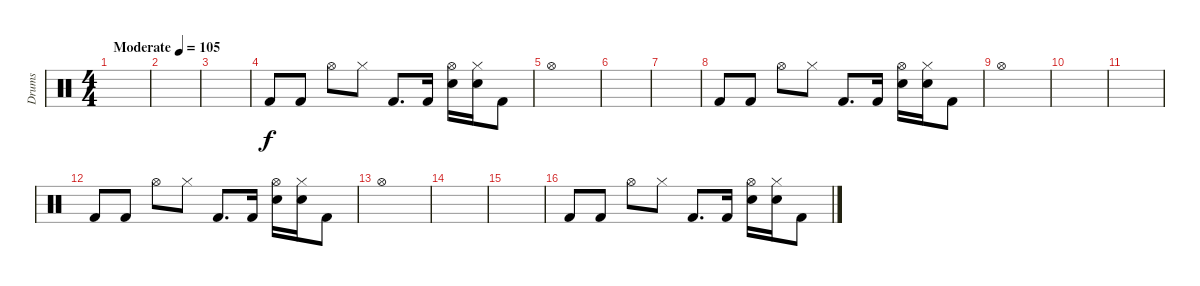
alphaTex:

\track ("Drums" "Drums") {instrument percussion}
\staff {score}
\articulation defaults
\ts (4 4)
\tempo (105 "Moderate")
\clef neutral
\ks c
|
|
|
"Kick (hit) 2".8 "Kick (hit) 2".8 "Hi-Hat (open)".8 "Hi-Hat (closed)".8 "Kick (hit) 2".8{d} "Kick (hit) 2".16 ("Hi-Hat (open)" "Snare (hit) 2").16 ("Hi-Hat (closed)" "Electric Snare (hit)").16 "Kick (hit) 2".8 |
"Hi-Hat (open)".1 |
|
|
"Kick (hit) 2".8 "Kick (hit) 2".8 "Hi-Hat (open)".8 "Hi-Hat (closed)".8 "Kick (hit) 2".8{d} "Kick (hit) 2".16 ("Hi-Hat (open)" "Snare (hit) 2").16 ("Hi-Hat (closed)" "Electric Snare (hit)").16 "Kick (hit) 2".8 |
"Hi-Hat (open)".1 |
|
|
"Kick (hit) 2".8 "Kick (hit) 2".8 "Hi-Hat (open)".8 "Hi-Hat (closed)".8 "Kick (hit) 2".8{d} "Kick (hit) 2".16 ("Hi-Hat (open)" "Snare (hit) 2").16 ("Hi-Hat (closed)" "Electric Snare (hit)").16 "Kick (hit) 2".8 |
"Hi-Hat (open)".1 |
|
|
"Kick (hit) 2".8 "Kick (hit) 2".8 "Hi-Hat (open)".8 "Hi-Hat (closed)".8 "Kick (hit) 2".8{d} "Kick (hit) 2".16 ("Hi-Hat (open)" "Snare (hit) 2").16 ("Hi-Hat (closed)" "Electric Snare (hit)").16 "Kick (hit) 2".8
